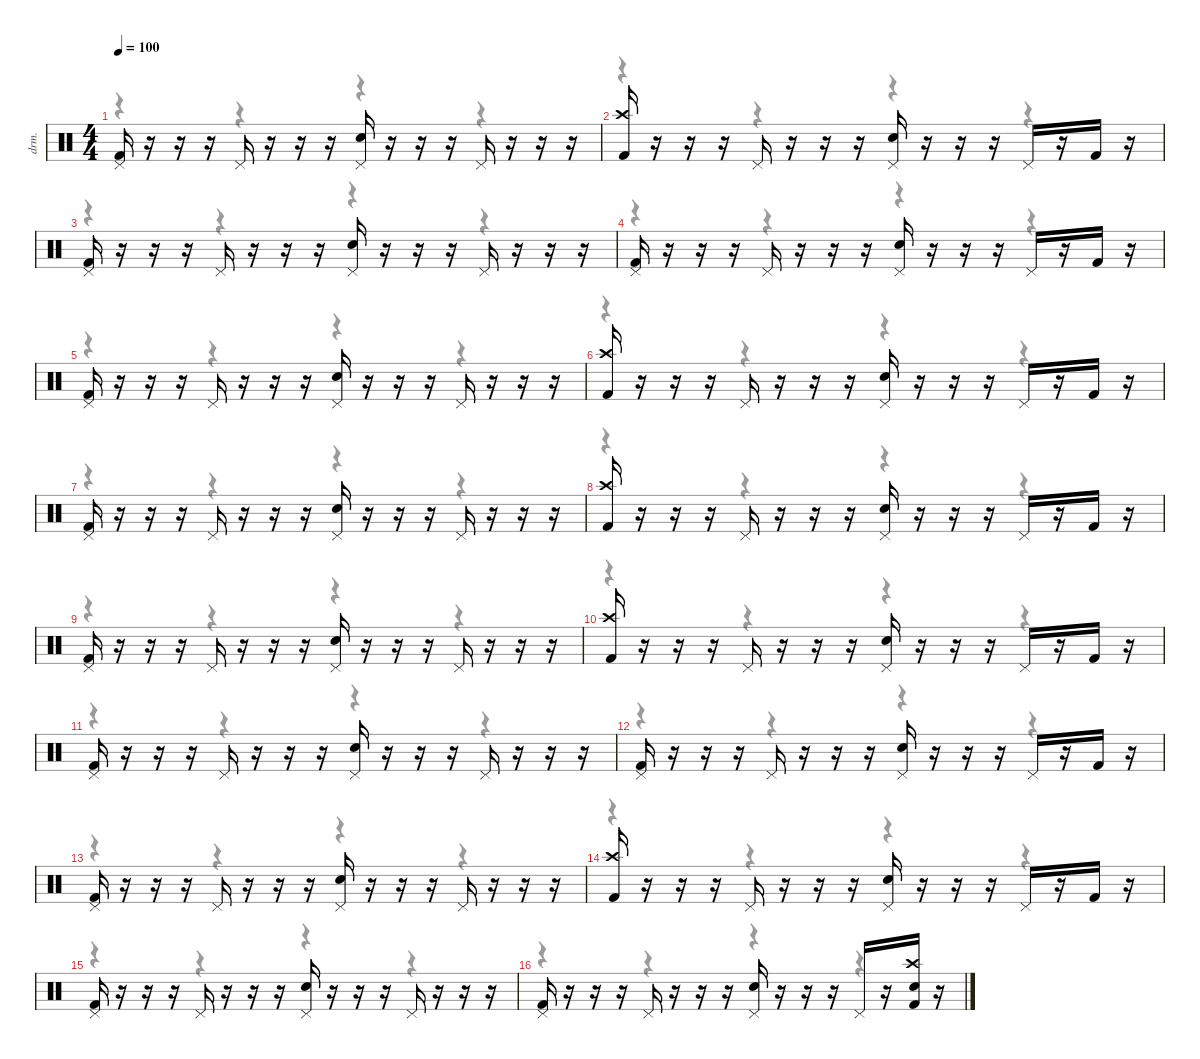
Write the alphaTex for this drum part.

\defaultSystemsLayout 4
\hideDynamics
\bracketExtendMode nobrackets
\otherSystemsTrackNameOrientation horizontal
\track ("Drums" "drm.") {instrument percussion}
\staff {score}
\articulation defaults
\voice
\ts (4 4)
\tempo 100
\clef neutral
\ks c
("Kick (hit) 2" "Pedal Hi-Hat (hit)").16{dy ff} r.16 r.16 r.16 "Pedal Hi-Hat (hit)".16 r.16 r.16 r.16 ("Snare (hit) 2" "Pedal Hi-Hat (hit)").16 r.16 r.16 r.16 "Pedal Hi-Hat (hit)".16 r.16 r.16 r.16 |
("Kick (hit) 2" "Crash high (hit)").16 r.16 r.16 r.16 "Pedal Hi-Hat (hit)".16 r.16 r.16 r.16 ("Snare (hit) 2" "Pedal Hi-Hat (hit)").16 r.16 r.16 r.16 "Pedal Hi-Hat (hit)".16 r.16 "Kick (hit) 2".16 r.16 |
("Kick (hit) 2" "Pedal Hi-Hat (hit)").16 r.16 r.16 r.16 "Pedal Hi-Hat (hit)".16 r.16 r.16 r.16 ("Snare (hit) 2" "Pedal Hi-Hat (hit)").16 r.16 r.16 r.16 "Pedal Hi-Hat (hit)".16 r.16 r.16 r.16 |
("Kick (hit) 2" "Pedal Hi-Hat (hit)").16 r.16 r.16 r.16 "Pedal Hi-Hat (hit)".16 r.16 r.16 r.16 ("Snare (hit) 2" "Pedal Hi-Hat (hit)").16 r.16 r.16 r.16 "Pedal Hi-Hat (hit)".16 r.16 "Kick (hit) 2".16 r.16 |
("Kick (hit) 2" "Pedal Hi-Hat (hit)").16 r.16 r.16 r.16 "Pedal Hi-Hat (hit)".16 r.16 r.16 r.16 ("Snare (hit) 2" "Pedal Hi-Hat (hit)").16 r.16 r.16 r.16 "Pedal Hi-Hat (hit)".16 r.16 r.16 r.16 |
("Kick (hit) 2" "Crash high (hit)").16 r.16 r.16 r.16 "Pedal Hi-Hat (hit)".16 r.16 r.16 r.16 ("Snare (hit) 2" "Pedal Hi-Hat (hit)").16 r.16 r.16 r.16 "Pedal Hi-Hat (hit)".16 r.16 "Kick (hit) 2".16 r.16 |
("Kick (hit) 2" "Pedal Hi-Hat (hit)").16 r.16 r.16 r.16 "Pedal Hi-Hat (hit)".16 r.16 r.16 r.16 ("Snare (hit) 2" "Pedal Hi-Hat (hit)").16 r.16 r.16 r.16 "Pedal Hi-Hat (hit)".16 r.16 r.16 r.16 |
("Kick (hit) 2" "Crash high (hit)").16 r.16 r.16 r.16 "Pedal Hi-Hat (hit)".16 r.16 r.16 r.16 ("Snare (hit) 2" "Pedal Hi-Hat (hit)").16 r.16 r.16 r.16 "Pedal Hi-Hat (hit)".16 r.16 "Kick (hit) 2".16 r.16 |
("Kick (hit) 2" "Pedal Hi-Hat (hit)").16 r.16 r.16 r.16 "Pedal Hi-Hat (hit)".16 r.16 r.16 r.16 ("Snare (hit) 2" "Pedal Hi-Hat (hit)").16 r.16 r.16 r.16 "Pedal Hi-Hat (hit)".16 r.16 r.16 r.16 |
("Kick (hit) 2" "Crash high (hit)").16 r.16 r.16 r.16 "Pedal Hi-Hat (hit)".16 r.16 r.16 r.16 ("Snare (hit) 2" "Pedal Hi-Hat (hit)").16 r.16 r.16 r.16 "Pedal Hi-Hat (hit)".16 r.16 "Kick (hit) 2".16 r.16 |
("Kick (hit) 2" "Pedal Hi-Hat (hit)").16 r.16 r.16 r.16 "Pedal Hi-Hat (hit)".16 r.16 r.16 r.16 ("Snare (hit) 2" "Pedal Hi-Hat (hit)").16 r.16 r.16 r.16 "Pedal Hi-Hat (hit)".16 r.16 r.16 r.16 |
("Kick (hit) 2" "Pedal Hi-Hat (hit)").16 r.16 r.16 r.16 "Pedal Hi-Hat (hit)".16 r.16 r.16 r.16 ("Snare (hit) 2" "Pedal Hi-Hat (hit)").16 r.16 r.16 r.16 "Pedal Hi-Hat (hit)".16 r.16 "Kick (hit) 2".16 r.16 |
("Kick (hit) 2" "Pedal Hi-Hat (hit)").16 r.16 r.16 r.16 "Pedal Hi-Hat (hit)".16 r.16 r.16 r.16 ("Snare (hit) 2" "Pedal Hi-Hat (hit)").16 r.16 r.16 r.16 "Pedal Hi-Hat (hit)".16 r.16 r.16 r.16 |
("Kick (hit) 2" "Crash high (hit)").16 r.16 r.16 r.16 "Pedal Hi-Hat (hit)".16 r.16 r.16 r.16 ("Snare (hit) 2" "Pedal Hi-Hat (hit)").16 r.16 r.16 r.16 "Pedal Hi-Hat (hit)".16 r.16 "Kick (hit) 2".16 r.16 |
("Kick (hit) 2" "Pedal Hi-Hat (hit)").16 r.16 r.16 r.16 "Pedal Hi-Hat (hit)".16 r.16 r.16 r.16 ("Snare (hit) 2" "Pedal Hi-Hat (hit)").16 r.16 r.16 r.16 "Pedal Hi-Hat (hit)".16 r.16 r.16 r.16 |
("Kick (hit) 2" "Pedal Hi-Hat (hit)").16 r.16 r.16 r.16 "Pedal Hi-Hat (hit)".16 r.16 r.16 r.16 ("Snare (hit) 2" "Pedal Hi-Hat (hit)").16 r.16 r.16 r.16 "Pedal Hi-Hat (hit)".16 r.16 ("Kick (hit) 2" "Snare (hit) 2" "Crash high (hit)").16 r.16
\voice
\clef neutral
\ottava regular
\simile none
\ks c
r.4{dy mf} r.4 r.4 r.4 |
r.4 r.4 r.4 r.4 |
r.4 r.4 r.4 r.4 |
r.4 r.4 r.4 r.4 |
r.4 r.4 r.4 r.4 |
r.4 r.4 r.4 r.4 |
r.4 r.4 r.4 r.4 |
r.4 r.4 r.4 r.4 |
r.4 r.4 r.4 r.4 |
r.4 r.4 r.4 r.4 |
r.4 r.4 r.4 r.4 |
r.4 r.4 r.4 r.4 |
r.4 r.4 r.4 r.4 |
r.4 r.4 r.4 r.4 |
r.4 r.4 r.4 r.4 |
r.4 r.4 r.4 r.4
